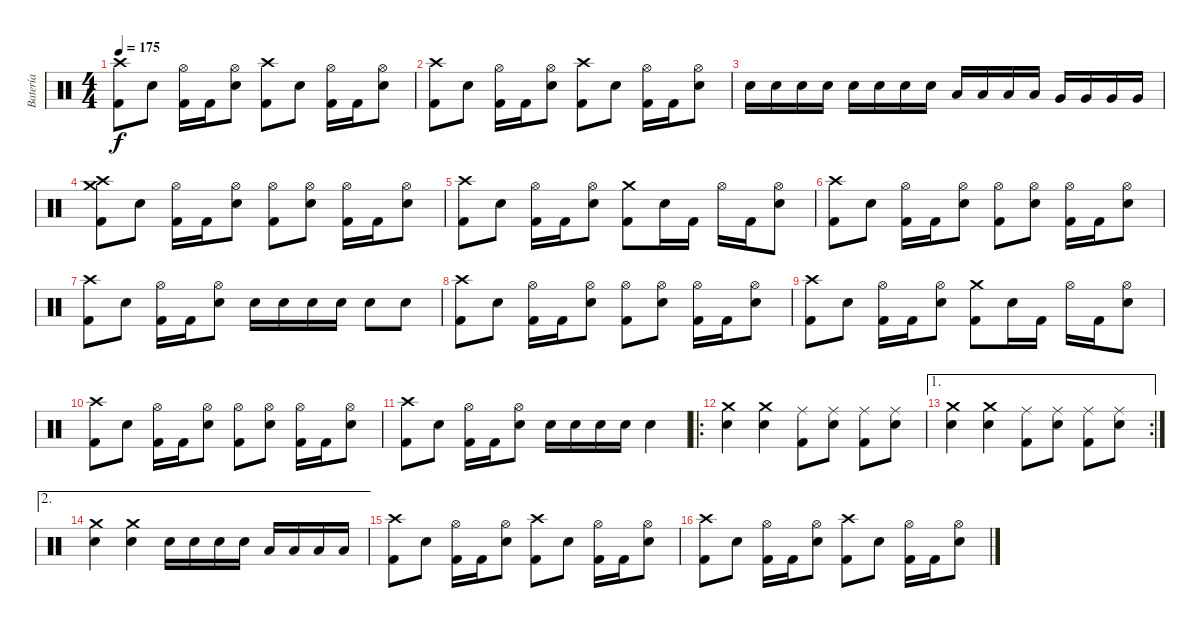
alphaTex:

\track ("Batería" "Batería") {instrument percussion}
\staff {score}
\articulation defaults
\ts (4 4)
\tempo 175
\clef neutral
\ks c
("Crash high (hit)" "Kick (hit) 2").8{dy f} "Electric Snare (hit)".8 ("Hi-Hat (open)" "Kick (hit) 2").16 "Kick (hit) 2".16 ("Hi-Hat (open)" "Electric Snare (hit)").8 ("Crash high (hit)" "Kick (hit) 2").8 "Electric Snare (hit)".8 ("Hi-Hat (open)" "Kick (hit) 2").16 "Kick (hit) 2".16 ("Hi-Hat (open)" "Electric Snare (hit)").8 |
("Crash high (hit)" "Kick (hit) 2").8 "Electric Snare (hit)".8 ("Hi-Hat (open)" "Kick (hit) 2").16 "Kick (hit) 2".16 ("Hi-Hat (open)" "Electric Snare (hit)").8 ("Crash high (hit)" "Kick (hit) 2").8 "Electric Snare (hit)".8 ("Hi-Hat (open)" "Kick (hit) 2").16 "Kick (hit) 2".16 ("Hi-Hat (open)" "Electric Snare (hit)").8 |
"Electric Snare (hit)".16 "Electric Snare (hit)".16 "Electric Snare (hit)".16 "Electric Snare (hit)".16 "Electric Snare (hit)".16 "Electric Snare (hit)".16 "Electric Snare (hit)".16 "Electric Snare (hit)".16 "Low Tom (hit)".16 "Low Tom (hit)".16 "Low Tom (hit)".16 "Low Tom (hit)".16 "Very Low Tom (hit)".16 "Very Low Tom (hit)".16 "Very Low Tom (hit)".16 "Very Low Tom (hit)".16 |
("Crash high (hit)" "Crash medium (hit)" "Kick (hit) 2").8 "Electric Snare (hit)".8 ("Hi-Hat (open)" "Kick (hit) 2").16 "Kick (hit) 2".16 ("Hi-Hat (open)" "Electric Snare (hit)").8 ("Hi-Hat (open)" "Kick (hit) 2").8 ("Hi-Hat (open)" "Electric Snare (hit)").8 ("Hi-Hat (open)" "Kick (hit) 2").16 "Kick (hit) 2".16 ("Hi-Hat (open)" "Electric Snare (hit)").8 |
("Crash high (hit)" "Kick (hit) 2").8 "Electric Snare (hit)".8 ("Hi-Hat (open)" "Kick (hit) 2").16 "Kick (hit) 2".16 ("Hi-Hat (open)" "Electric Snare (hit)").8 ("Crash medium (hit)" "Kick (hit) 2").8 "Electric Snare (hit)".16 "Kick (hit) 2".16 "Hi-Hat (open)".16 "Kick (hit) 2".16 ("Hi-Hat (open)" "Electric Snare (hit)").8 |
("Crash high (hit)" "Kick (hit) 2").8 "Electric Snare (hit)".8 ("Hi-Hat (open)" "Kick (hit) 2").16 "Kick (hit) 2".16 ("Hi-Hat (open)" "Electric Snare (hit)").8 ("Hi-Hat (open)" "Kick (hit) 2").8 ("Hi-Hat (open)" "Electric Snare (hit)").8 ("Hi-Hat (open)" "Kick (hit) 2").16 "Kick (hit) 2".16 ("Hi-Hat (open)" "Electric Snare (hit)").8 |
("Crash high (hit)" "Kick (hit) 2").8 "Electric Snare (hit)".8 ("Hi-Hat (open)" "Kick (hit) 2").16 "Kick (hit) 2".16 ("Hi-Hat (open)" "Electric Snare (hit)").8 "Electric Snare (hit)".16 "Electric Snare (hit)".16 "Electric Snare (hit)".16 "Electric Snare (hit)".16 "Electric Snare (hit)".8 "Electric Snare (hit)".8 |
("Crash high (hit)" "Kick (hit) 2").8 "Electric Snare (hit)".8 ("Hi-Hat (open)" "Kick (hit) 2").16 "Kick (hit) 2".16 ("Hi-Hat (open)" "Electric Snare (hit)").8 ("Hi-Hat (open)" "Kick (hit) 2").8 ("Hi-Hat (open)" "Electric Snare (hit)").8 ("Hi-Hat (open)" "Kick (hit) 2").16 "Kick (hit) 2".16 ("Hi-Hat (open)" "Electric Snare (hit)").8 |
("Crash high (hit)" "Kick (hit) 2").8 "Electric Snare (hit)".8 ("Hi-Hat (open)" "Kick (hit) 2").16 "Kick (hit) 2".16 ("Hi-Hat (open)" "Electric Snare (hit)").8 ("Crash medium (hit)" "Kick (hit) 2").8 "Electric Snare (hit)".16 "Kick (hit) 2".16 "Hi-Hat (open)".16 "Kick (hit) 2".16 ("Hi-Hat (open)" "Electric Snare (hit)").8 |
("Crash high (hit)" "Kick (hit) 2").8 "Electric Snare (hit)".8 ("Hi-Hat (open)" "Kick (hit) 2").16 "Kick (hit) 2".16 ("Hi-Hat (open)" "Electric Snare (hit)").8 ("Hi-Hat (open)" "Kick (hit) 2").8 ("Hi-Hat (open)" "Electric Snare (hit)").8 ("Hi-Hat (open)" "Kick (hit) 2").16 "Kick (hit) 2".16 ("Hi-Hat (open)" "Electric Snare (hit)").8 |
("Crash high (hit)" "Kick (hit) 2").8 "Electric Snare (hit)".8 ("Hi-Hat (open)" "Kick (hit) 2").16 "Kick (hit) 2".16 ("Hi-Hat (open)" "Electric Snare (hit)").8 "Electric Snare (hit)".16 "Electric Snare (hit)".16 "Electric Snare (hit)".16 "Electric Snare (hit)".16 "Electric Snare (hit)".4 |
\ro
("Crash medium (hit)" "Electric Snare (hit)").4 ("Crash medium (hit)" "Electric Snare (hit)").4 ("Ride (middle)" "Kick (hit) 2").8 ("Ride (middle)" "Electric Snare (hit)").8 ("Ride (middle)" "Kick (hit) 2").8 ("Ride (middle)" "Electric Snare (hit)").8 |
\ae 1
\rc 2
("Crash medium (hit)" "Electric Snare (hit)").4 ("Crash medium (hit)" "Electric Snare (hit)").4 ("Ride (middle)" "Kick (hit) 2").8 ("Ride (middle)" "Electric Snare (hit)").8 ("Ride (middle)" "Kick (hit) 2").8 ("Ride (middle)" "Electric Snare (hit)").8 |
\ae 2
("Crash medium (hit)" "Electric Snare (hit)").4 ("Crash medium (hit)" "Electric Snare (hit)").4 "Electric Snare (hit)".16 "Electric Snare (hit)".16 "Electric Snare (hit)".16 "Electric Snare (hit)".16 "Low Tom (hit)".16 "Low Tom (hit)".16 "Low Tom (hit)".16 "Low Tom (hit)".16 |
("Crash high (hit)" "Kick (hit) 2").8 "Electric Snare (hit)".8 ("Hi-Hat (open)" "Kick (hit) 2").16 "Kick (hit) 2".16 ("Hi-Hat (open)" "Electric Snare (hit)").8 ("Crash high (hit)" "Kick (hit) 2").8 "Electric Snare (hit)".8 ("Hi-Hat (open)" "Kick (hit) 2").16 "Kick (hit) 2".16 ("Hi-Hat (open)" "Electric Snare (hit)").8 |
("Crash high (hit)" "Kick (hit) 2").8 "Electric Snare (hit)".8 ("Hi-Hat (open)" "Kick (hit) 2").16 "Kick (hit) 2".16 ("Hi-Hat (open)" "Electric Snare (hit)").8 ("Crash high (hit)" "Kick (hit) 2").8 "Electric Snare (hit)".8 ("Hi-Hat (open)" "Kick (hit) 2").16 "Kick (hit) 2".16 ("Hi-Hat (open)" "Electric Snare (hit)").8
